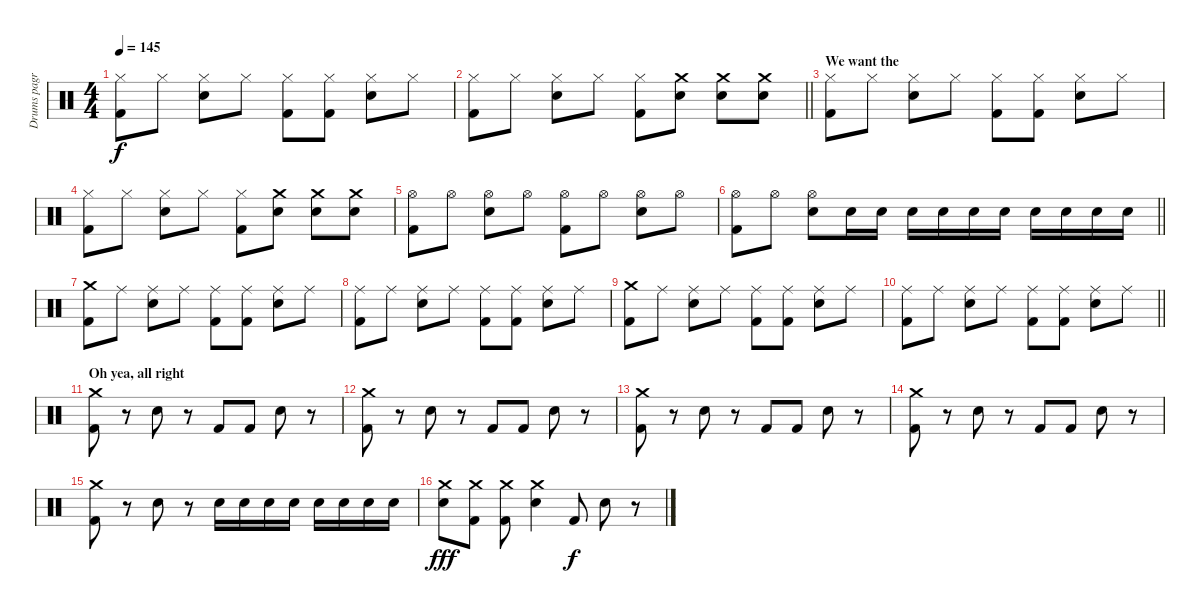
\track ("Drums pagr" "Drums pagr") {instrument percussion}
\staff {score}
\articulation defaults
\ts (4 4)
\tempo 145
\clef neutral
\ks c
("Hi-Hat (closed)" "Kick (hit) 2").8{dy f} "Hi-Hat (closed)".8 ("Hi-Hat (closed)" "Snare (hit) 2").8 "Hi-Hat (closed)".8 ("Hi-Hat (closed)" "Kick (hit) 2").8 ("Hi-Hat (closed)" "Kick (hit) 2").8 ("Hi-Hat (closed)" "Snare (hit) 2").8 "Hi-Hat (closed)".8 |
\barLineRight lightlight
("Hi-Hat (closed)" "Kick (hit) 2").8 "Hi-Hat (closed)".8 ("Hi-Hat (closed)" "Snare (hit) 2").8 "Hi-Hat (closed)".8 ("Hi-Hat (closed)" "Kick (hit) 2").8 ("Crash medium (hit)" "Snare (hit) 2").8 ("Crash medium (hit)" "Snare (hit) 2").8 ("Crash medium (hit)" "Snare (hit) 2").8 |
\section ("" "We want the")
("Hi-Hat (closed)" "Kick (hit) 2").8 "Hi-Hat (closed)".8 ("Hi-Hat (closed)" "Snare (hit) 2").8 "Hi-Hat (closed)".8 ("Hi-Hat (closed)" "Kick (hit) 2").8 ("Hi-Hat (closed)" "Kick (hit) 2").8 ("Hi-Hat (closed)" "Snare (hit) 2").8 "Hi-Hat (closed)".8 |
("Hi-Hat (closed)" "Kick (hit) 2").8 "Hi-Hat (closed)".8 ("Hi-Hat (closed)" "Snare (hit) 2").8 "Hi-Hat (closed)".8 ("Hi-Hat (closed)" "Kick (hit) 2").8 ("Crash medium (hit)" "Snare (hit) 2").8 ("Crash medium (hit)" "Snare (hit) 2").8 ("Crash medium (hit)" "Snare (hit) 2").8 |
("Hi-Hat (open)" "Kick (hit) 2").8 "Hi-Hat (open)".8 ("Hi-Hat (open)" "Snare (hit) 2").8 "Hi-Hat (open)".8 ("Hi-Hat (open)" "Kick (hit) 2").8 "Hi-Hat (open)".8 ("Hi-Hat (open)" "Snare (hit) 2").8 "Hi-Hat (open)".8 |
\barLineRight lightlight
("Hi-Hat (open)" "Kick (hit) 2").8 "Hi-Hat (open)".8 ("Hi-Hat (open)" "Snare (hit) 2").8 "Snare (hit) 2".16 "Snare (hit) 2".16 "Snare (hit) 2".16 "Snare (hit) 2".16 "Snare (hit) 2".16 "Snare (hit) 2".16 "Snare (hit) 2".16 "Snare (hit) 2".16 "Snare (hit) 2".16 "Snare (hit) 2".16 |
("Crash medium (hit)" "Kick (hit) 2").8 "Ride (middle)".8 ("Ride (middle)" "Snare (hit) 2").8 "Ride (middle)".8 ("Ride (middle)" "Kick (hit) 2").8 ("Ride (middle)" "Kick (hit) 2").8 ("Ride (middle)" "Snare (hit) 2").8 "Ride (middle)".8 |
("Ride (middle)" "Kick (hit) 2").8 "Ride (middle)".8 ("Ride (middle)" "Snare (hit) 2").8 "Ride (middle)".8 ("Ride (middle)" "Kick (hit) 2").8 ("Ride (middle)" "Kick (hit) 2").8 ("Ride (middle)" "Snare (hit) 2").8 "Ride (middle)".8 |
("Crash medium (hit)" "Kick (hit) 2").8 "Ride (middle)".8 ("Ride (middle)" "Snare (hit) 2").8 "Ride (middle)".8 ("Ride (middle)" "Kick (hit) 2").8 ("Ride (middle)" "Kick (hit) 2").8 ("Ride (middle)" "Snare (hit) 2").8 "Ride (middle)".8 |
\barLineRight lightlight
("Ride (middle)" "Kick (hit) 2").8 "Ride (middle)".8 ("Ride (middle)" "Snare (hit) 2").8 "Ride (middle)".8 ("Ride (middle)" "Kick (hit) 2").8 ("Ride (middle)" "Kick (hit) 2").8 ("Ride (middle)" "Snare (hit) 2").8 "Ride (middle)".8 |
\section ("" "Oh yea, all right")
("Crash medium (hit)" "Kick (hit) 2").8 r.8 "Snare (hit) 2".8 r.8 "Kick (hit) 2".8 "Kick (hit) 2".8 "Snare (hit) 2".8 r.8 |
("Crash medium (hit)" "Kick (hit) 2").8 r.8 "Snare (hit) 2".8 r.8 "Kick (hit) 2".8 "Kick (hit) 2".8 "Snare (hit) 2".8 r.8 |
("Crash medium (hit)" "Kick (hit) 2").8 r.8 "Snare (hit) 2".8 r.8 "Kick (hit) 2".8 "Kick (hit) 2".8 "Snare (hit) 2".8 r.8 |
("Crash medium (hit)" "Kick (hit) 2").8 r.8 "Snare (hit) 2".8 r.8 "Kick (hit) 2".8 "Kick (hit) 2".8 "Snare (hit) 2".8 r.8 |
("Crash medium (hit)" "Kick (hit) 2").8 r.8 "Snare (hit) 2".8 r.8 "Snare (hit) 2".16 "Snare (hit) 2".16 "Snare (hit) 2".16 "Snare (hit) 2".16 "Snare (hit) 2".16 "Snare (hit) 2".16 "Snare (hit) 2".16 "Snare (hit) 2".16 |
("Crash medium (hit)" "Snare (hit) 2").8{dy fff} ("Crash medium (hit)" "Kick (hit) 2").8 ("Crash medium (hit)" "Kick (hit) 2").8 ("Crash medium (hit)" "Snare (hit) 2").4 "Kick (hit) 2".8{dy f} "Snare (hit) 2".8 r.8
